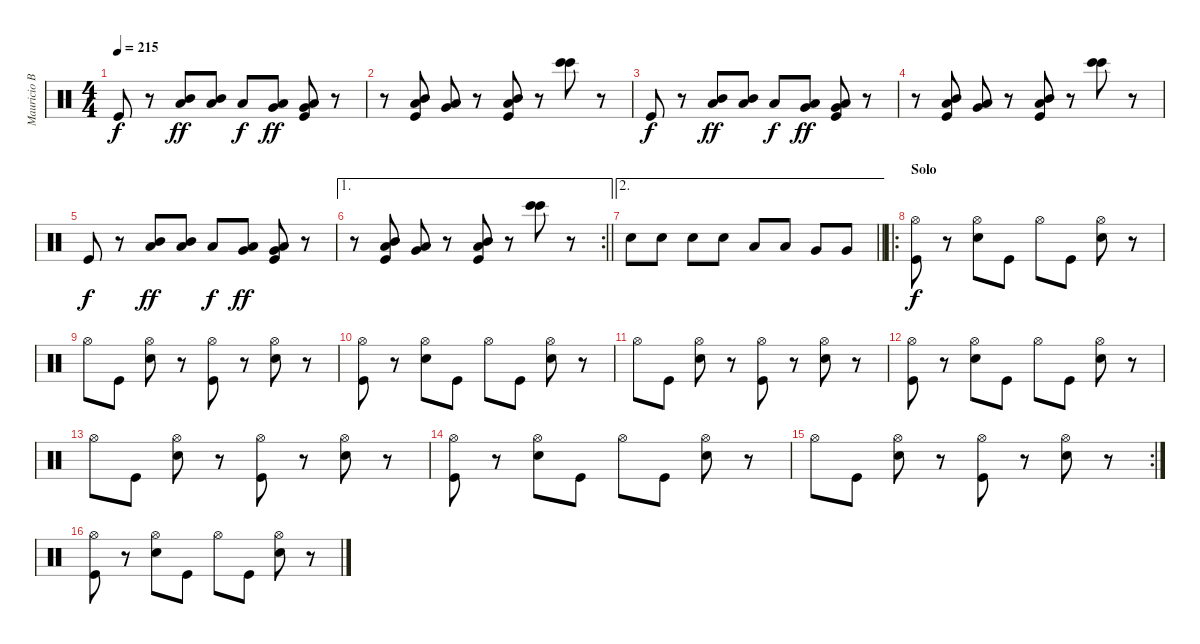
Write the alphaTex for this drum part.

\track ("Mauricio Basualto" "Mauricio B") {instrument percussion}
\staff {score}
\articulation defaults
\ts (4 4)
\tempo 215
\clef neutral
\ks c "Kick (hit)".8{dy f}
r.8 ("Mid Tom (hit)" "Low Tom (hit)").8{dy ff} ("Mid Tom (hit)" "Low Tom (hit)").8 "Low Tom (hit)".8{dy f} ("Low Tom (hit)" "Very Low Tom (hit)").8{dy ff} ("Low Tom (hit)" "Very Low Tom (hit)" "Kick (hit)").8 r.8 |
r.8 ("Mid Tom (hit)" "Low Tom (hit)" "Kick (hit)").8 ("Low Tom (hit)" "Very Low Tom (hit)").8 r.8 ("Mid Tom (hit)" "Low Tom (hit)" "Kick (hit)").8 r.8 ("Bongo High (hit)" "Bongo High (hit)").8 r.8 |
"Kick (hit)".8{dy f} r.8 ("Mid Tom (hit)" "Low Tom (hit)").8{dy ff} ("Mid Tom (hit)" "Low Tom (hit)").8 "Low Tom (hit)".8{dy f} ("Low Tom (hit)" "Very Low Tom (hit)").8{dy ff} ("Low Tom (hit)" "Very Low Tom (hit)" "Kick (hit)").8 r.8 |
r.8 ("Mid Tom (hit)" "Low Tom (hit)" "Kick (hit)").8 ("Low Tom (hit)" "Very Low Tom (hit)").8 r.8 ("Mid Tom (hit)" "Low Tom (hit)" "Kick (hit)").8 r.8 ("Bongo High (hit)" "Bongo High (hit)").8 r.8 |
"Kick (hit)".8{dy f} r.8 ("Mid Tom (hit)" "Low Tom (hit)").8{dy ff} ("Mid Tom (hit)" "Low Tom (hit)").8 "Low Tom (hit)".8{dy f} ("Low Tom (hit)" "Very Low Tom (hit)").8{dy ff} ("Low Tom (hit)" "Very Low Tom (hit)" "Kick (hit)").8 r.8 |
\ae 1
\rc 2
\barLineRight lightlight
r.8 ("Mid Tom (hit)" "Low Tom (hit)" "Kick (hit)").8 ("Low Tom (hit)" "Very Low Tom (hit)").8 r.8 ("Mid Tom (hit)" "Low Tom (hit)" "Kick (hit)").8 r.8 ("Bongo High (hit)" "Bongo High (hit)").8 r.8 |
\ae 2
\barLineRight lightlight "Electric Snare (hit)".8 "Electric Snare (hit)".8 "Electric Snare (hit)".8 "Electric Snare (hit)".8 "Low Tom (hit)".8 "Low Tom (hit)".8 "Very Low Tom (hit)".8 "Very Low Tom (hit)".8
|
\ro
\section ("" "Solo")
("Hi-Hat (open)" "Kick (hit)").8{dy f} r.8 ("Hi-Hat (open)" "Electric Snare (hit)").8 "Kick (hit)".8 "Hi-Hat (open)".8 "Kick (hit)".8 ("Hi-Hat (open)" "Electric Snare (hit)").8 r.8 |
"Hi-Hat (open)".8 "Kick (hit)".8 ("Hi-Hat (open)" "Electric Snare (hit)").8 r.8 ("Hi-Hat (open)" "Kick (hit)").8 r.8 ("Hi-Hat (open)" "Electric Snare (hit)").8 r.8 |
("Hi-Hat (open)" "Kick (hit)").8 r.8 ("Hi-Hat (open)" "Electric Snare (hit)").8 "Kick (hit)".8 "Hi-Hat (open)".8 "Kick (hit)".8 ("Hi-Hat (open)" "Electric Snare (hit)").8 r.8 |
"Hi-Hat (open)".8 "Kick (hit)".8 ("Hi-Hat (open)" "Electric Snare (hit)").8 r.8 ("Hi-Hat (open)" "Kick (hit)").8 r.8 ("Hi-Hat (open)" "Electric Snare (hit)").8 r.8 |
("Hi-Hat (open)" "Kick (hit)").8 r.8 ("Hi-Hat (open)" "Electric Snare (hit)").8 "Kick (hit)".8 "Hi-Hat (open)".8 "Kick (hit)".8 ("Hi-Hat (open)" "Electric Snare (hit)").8 r.8 |
"Hi-Hat (open)".8 "Kick (hit)".8 ("Hi-Hat (open)" "Electric Snare (hit)").8 r.8 ("Hi-Hat (open)" "Kick (hit)").8 r.8 ("Hi-Hat (open)" "Electric Snare (hit)").8 r.8 |
("Hi-Hat (open)" "Kick (hit)").8 r.8 ("Hi-Hat (open)" "Electric Snare (hit)").8 "Kick (hit)".8 "Hi-Hat (open)".8 "Kick (hit)".8 ("Hi-Hat (open)" "Electric Snare (hit)").8 r.8 |
\rc 2 "Hi-Hat (open)".8 "Kick (hit)".8
("Hi-Hat (open)" "Electric Snare (hit)").8 r.8 ("Hi-Hat (open)" "Kick (hit)").8 r.8 ("Hi-Hat (open)" "Electric Snare (hit)").8 r.8 |
("Hi-Hat (open)" "Kick (hit)").8 r.8 ("Hi-Hat (open)" "Electric Snare (hit)").8 "Kick (hit)".8 "Hi-Hat (open)".8 "Kick (hit)".8 ("Hi-Hat (open)" "Electric Snare (hit)").8 r.8
